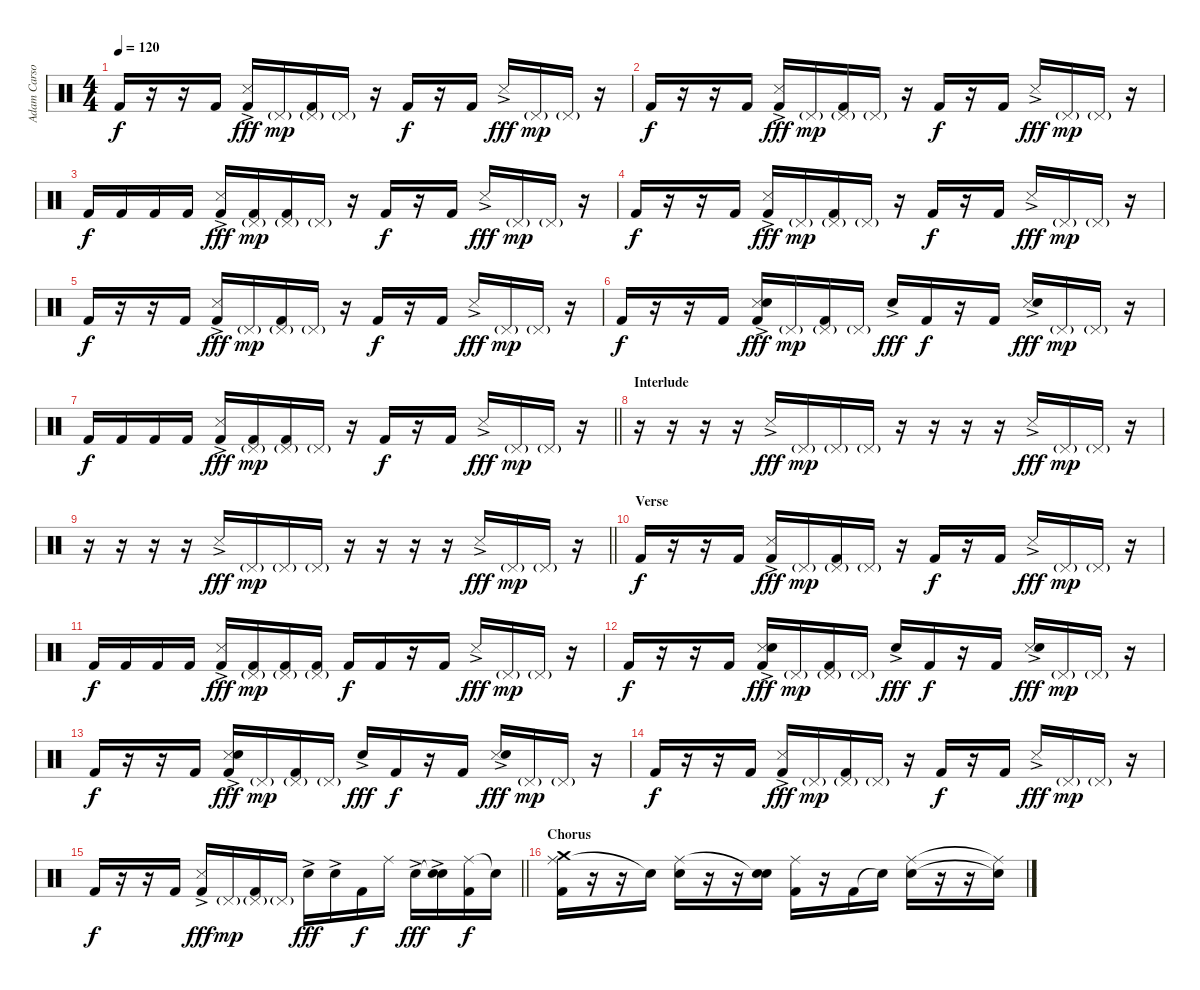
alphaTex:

\track ("Adam Carson (Percussion)" "Adam Carso") {instrument percussion}
\staff {score}
\articulation defaults
\ts (4 4)
\tempo 120
\clef neutral
\ks c "Kick (hit) 2".16{dy f}
r.16 r.16 "Kick (hit) 2".16 ("Kick (hit) 2" "Snare (side stick) 3"{ac}).16{dy fff} "Pedal Hi-Hat (hit)"{g}.16{dy mp} ("Kick (hit) 2" "Pedal Hi-Hat (hit)"{g}).16 "Pedal Hi-Hat (hit)"{g}.16 r.16 "Kick (hit) 2".16{dy f} r.16 "Kick (hit) 2".16 "Snare (side stick) 3"{ac}.16{dy fff} "Pedal Hi-Hat (hit)"{g}.16{dy mp} "Pedal Hi-Hat (hit)"{g}.16 r.16 |
"Kick (hit) 2".16{dy f} r.16 r.16 "Kick (hit) 2".16 ("Kick (hit) 2" "Snare (side stick) 3"{ac}).16{dy fff} "Pedal Hi-Hat (hit)"{g}.16{dy mp} ("Kick (hit) 2" "Pedal Hi-Hat (hit)"{g}).16 "Pedal Hi-Hat (hit)"{g}.16 r.16 "Kick (hit) 2".16{dy f} r.16 "Kick (hit) 2".16 "Snare (side stick) 3"{ac}.16{dy fff} "Pedal Hi-Hat (hit)"{g}.16{dy mp} "Pedal Hi-Hat (hit)"{g}.16 r.16 |
"Kick (hit) 2".16{dy f} "Kick (hit) 2".16 "Kick (hit) 2".16 "Kick (hit) 2".16 ("Kick (hit) 2" "Snare (side stick) 3"{ac}).16{dy fff} ("Kick (hit) 2" "Pedal Hi-Hat (hit)"{g}).16{dy mp} ("Kick (hit) 2" "Pedal Hi-Hat (hit)"{g}).16 "Pedal Hi-Hat (hit)"{g}.16 r.16 "Kick (hit) 2".16{dy f} r.16 "Kick (hit) 2".16 "Snare (side stick) 3"{ac}.16{dy fff} "Pedal Hi-Hat (hit)"{g}.16{dy mp} "Pedal Hi-Hat (hit)"{g}.16 r.16 |
"Kick (hit) 2".16{dy f} r.16 r.16 "Kick (hit) 2".16 ("Kick (hit) 2" "Snare (side stick) 3"{ac}).16{dy fff} "Pedal Hi-Hat (hit)"{g}.16{dy mp} ("Kick (hit) 2" "Pedal Hi-Hat (hit)"{g}).16 "Pedal Hi-Hat (hit)"{g}.16 r.16 "Kick (hit) 2".16{dy f} r.16 "Kick (hit) 2".16 "Snare (side stick) 3"{ac}.16{dy fff} "Pedal Hi-Hat (hit)"{g}.16{dy mp} "Pedal Hi-Hat (hit)"{g}.16 r.16 |
"Kick (hit) 2".16{dy f} r.16 r.16 "Kick (hit) 2".16 ("Kick (hit) 2" "Snare (side stick) 3"{ac}).16{dy fff} "Pedal Hi-Hat (hit)"{g}.16{dy mp} ("Kick (hit) 2" "Pedal Hi-Hat (hit)"{g}).16 "Pedal Hi-Hat (hit)"{g}.16 r.16 "Kick (hit) 2".16{dy f} r.16 "Kick (hit) 2".16 "Snare (side stick) 3"{ac}.16{dy fff} "Pedal Hi-Hat (hit)"{g}.16{dy mp} "Pedal Hi-Hat (hit)"{g}.16 r.16 |
"Kick (hit) 2".16{dy f} r.16 r.16 "Kick (hit) 2".16 ("Kick (hit) 2" "Snare (side stick) 3"{ac} "Hand Clap (hit)"{ac}).16{dy fff} "Pedal Hi-Hat (hit)"{g}.16{dy mp} ("Kick (hit) 2" "Pedal Hi-Hat (hit)"{g}).16 "Pedal Hi-Hat (hit)"{g}.16 "Hand Clap (hit)"{ac}.16{dy fff} "Kick (hit) 2".16{dy f} r.16 "Kick (hit) 2".16 ("Snare (side stick) 3"{ac} "Hand Clap (hit)"{ac}).16{dy fff} "Pedal Hi-Hat (hit)"{g}.16{dy mp} "Pedal Hi-Hat (hit)"{g}.16 r.16 |
\barLineRight lightlight "Kick (hit) 2".16{dy f volume 16 balance 8} "Kick (hit) 2".16 "Kick (hit) 2".16 "Kick (hit) 2".16
("Kick (hit) 2" "Snare (side stick) 3"{ac}).16{dy fff} ("Kick (hit) 2" "Pedal Hi-Hat (hit)"{g}).16{dy mp} ("Kick (hit) 2" "Pedal Hi-Hat (hit)"{g}).16 "Pedal Hi-Hat (hit)"{g}.16 r.16 "Kick (hit) 2".16{dy f} r.16 "Kick (hit) 2".16 "Snare (side stick) 3"{ac}.16{dy fff} "Pedal Hi-Hat (hit)"{g}.16{dy mp} "Pedal Hi-Hat (hit)"{g}.16 r.16 |
\section ("" "Interlude")
r.16{volume 16 balance 8} r.16 r.16 r.16 "Snare (side stick) 3"{ac}.16{dy fff} "Pedal Hi-Hat (hit)"{g}.16{dy mp} "Pedal Hi-Hat (hit)"{g}.16 "Pedal Hi-Hat (hit)"{g}.16 r.16 r.16 r.16 r.16 "Snare (side stick) 3"{ac}.16{dy fff} "Pedal Hi-Hat (hit)"{g}.16{dy mp} "Pedal Hi-Hat (hit)"{g}.16 r.16 |
\barLineRight lightlight
r.16{volume 16 balance 8} r.16 r.16 r.16 "Snare (side stick) 3"{ac}.16{dy fff} "Pedal Hi-Hat (hit)"{g}.16{dy mp} "Pedal Hi-Hat (hit)"{g}.16 "Pedal Hi-Hat (hit)"{g}.16 r.16 r.16 r.16 r.16 "Snare (side stick) 3"{ac}.16{dy fff} "Pedal Hi-Hat (hit)"{g}.16{dy mp} "Pedal Hi-Hat (hit)"{g}.16 r.16 |
\section ("" "Verse")
"Kick (hit) 2".16{dy f} r.16 r.16 "Kick (hit) 2".16 ("Kick (hit) 2" "Snare (side stick) 3"{ac}).16{dy fff} "Pedal Hi-Hat (hit)"{g}.16{dy mp} ("Kick (hit) 2" "Pedal Hi-Hat (hit)"{g}).16 "Pedal Hi-Hat (hit)"{g}.16 r.16 "Kick (hit) 2".16{dy f} r.16 "Kick (hit) 2".16 "Snare (side stick) 3"{ac}.16{dy fff} "Pedal Hi-Hat (hit)"{g}.16{dy mp} "Pedal Hi-Hat (hit)"{g}.16 r.16 |
"Kick (hit) 2".16{dy f} "Kick (hit) 2".16 "Kick (hit) 2".16 "Kick (hit) 2".16 ("Kick (hit) 2" "Snare (side stick) 3"{ac}).16{dy fff} ("Kick (hit) 2" "Pedal Hi-Hat (hit)"{g}).16{dy mp} ("Kick (hit) 2" "Pedal Hi-Hat (hit)"{g}).16 ("Kick (hit) 2" "Pedal Hi-Hat (hit)"{g}).16 "Kick (hit) 2".16{dy f} "Kick (hit) 2".16 r.16 "Kick (hit) 2".16 "Snare (side stick) 3"{ac}.16{dy fff} "Pedal Hi-Hat (hit)"{g}.16{dy mp} "Pedal Hi-Hat (hit)"{g}.16 r.16 |
"Kick (hit) 2".16{dy f} r.16 r.16 "Kick (hit) 2".16 ("Kick (hit) 2" "Snare (side stick) 3"{ac} "Hand Clap (hit)"{ac}).16{dy fff} "Pedal Hi-Hat (hit)"{g}.16{dy mp} ("Kick (hit) 2" "Pedal Hi-Hat (hit)"{g}).16 "Pedal Hi-Hat (hit)"{g}.16 "Hand Clap (hit)"{ac}.16{dy fff} "Kick (hit) 2".16{dy f} r.16 "Kick (hit) 2".16 ("Snare (side stick) 3"{ac} "Hand Clap (hit)"{ac}).16{dy fff} "Pedal Hi-Hat (hit)"{g}.16{dy mp} "Pedal Hi-Hat (hit)"{g}.16 r.16 |
"Kick (hit) 2".16{dy f} r.16 r.16 "Kick (hit) 2".16 ("Kick (hit) 2" "Snare (side stick) 3"{ac} "Hand Clap (hit)"{ac}).16{dy fff} "Pedal Hi-Hat (hit)"{g}.16{dy mp} ("Kick (hit) 2" "Pedal Hi-Hat (hit)"{g}).16 "Pedal Hi-Hat (hit)"{g}.16 "Hand Clap (hit)"{ac}.16{dy fff} "Kick (hit) 2".16{dy f} r.16 "Kick (hit) 2".16 ("Snare (side stick) 3"{ac} "Hand Clap (hit)"{ac}).16{dy fff} "Pedal Hi-Hat (hit)"{g}.16{dy mp} "Pedal Hi-Hat (hit)"{g}.16 r.16 |
"Kick (hit) 2".16{dy f} r.16 r.16 "Kick (hit) 2".16 ("Kick (hit) 2" "Snare (side stick) 3"{ac}).16{dy fff} "Pedal Hi-Hat (hit)"{g}.16{dy mp} ("Kick (hit) 2" "Pedal Hi-Hat (hit)"{g}).16 "Pedal Hi-Hat (hit)"{g}.16 r.16 "Kick (hit) 2".16{dy f} r.16 "Kick (hit) 2".16 "Snare (side stick) 3"{ac}.16{dy fff} "Pedal Hi-Hat (hit)"{g}.16{dy mp} "Pedal Hi-Hat (hit)"{g}.16 r.16 |
\barLineRight lightlight "Kick (hit) 2".16{dy f}
r.16 r.16 "Kick (hit) 2".16 ("Kick (hit) 2" "Snare (side stick) 3"{ac}).16{dy fff} "Pedal Hi-Hat (hit)"{g}.16{dy mp} ("Kick (hit) 2" "Pedal Hi-Hat (hit)"{g}).16 "Pedal Hi-Hat (hit)"{g}.16 "Snare (hit) 2"{ac}.16{dy fff} "Snare (hit) 2"{ac}.16 "Kick (hit) 2".16{dy f} "Ride (middle)".16 "Snare (hit) 2"{ac}.16{dy fff} ("Snare (hit)"{t} "Snare (hit) 2"{ac}).16 ("Ride (middle)" "Kick (hit) 2").16{dy f} "Snare (hit)"{t}.16 |
\section ("" "Chorus")
("Ride (middle)" "Crash medium (hit)" "Kick (hit) 2").16 r.16 r.16 "Snare (hit)"{t}.16 ("Ride (middle)" "Snare (hit) 2").16 r.16 r.16 ("Snare (hit)"{t} "Snare (hit) 2").16 ("Ride (middle)" "Kick (hit) 2").16 r.16 "Kick (hit) 2".16 "Snare (hit)"{t}.16 ("Ride (middle)" "Snare (hit) 2").16 r.16 r.16 ("Ride (middle)"{t} "Snare (hit)"{t}).16
